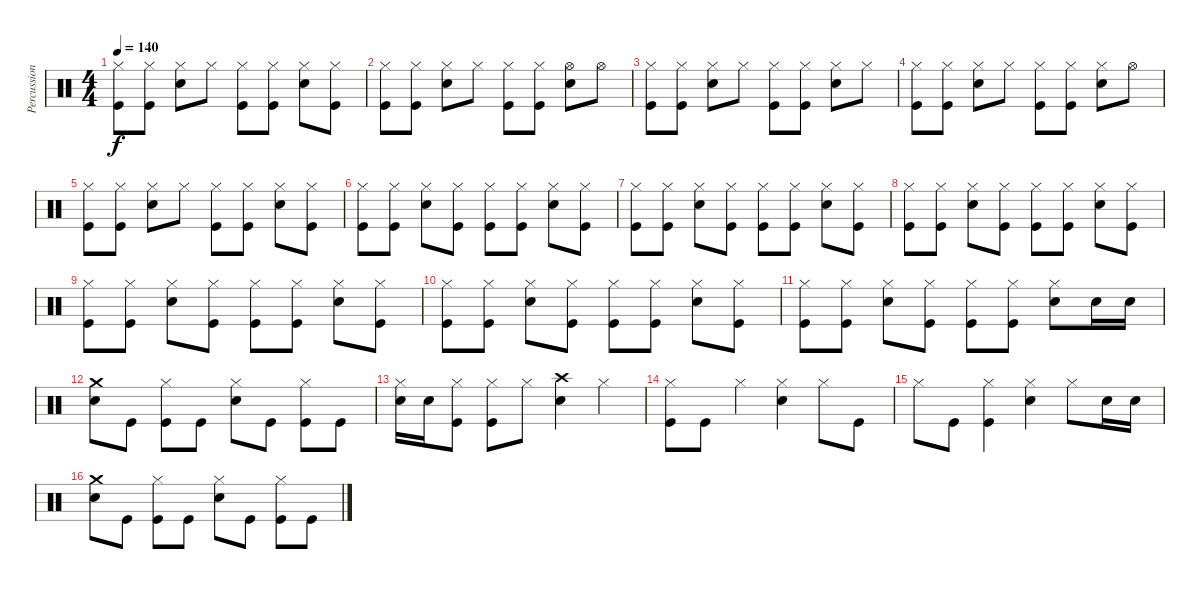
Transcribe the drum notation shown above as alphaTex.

\track ("Percussion" "Percussion") {instrument percussion}
\staff {score}
\articulation defaults
\ts (4 4)
\tempo 140
\clef neutral
\ks c
("Kick (hit)" "Hi-Hat (closed)").8{dy f} ("Kick (hit)" "Hi-Hat (closed)").8 ("Snare (hit) 2" "Hi-Hat (closed)").8 "Hi-Hat (closed)".8 ("Kick (hit)" "Hi-Hat (closed)").8 ("Kick (hit)" "Hi-Hat (closed)").8 ("Snare (hit) 2" "Hi-Hat (closed)").8 ("Kick (hit)" "Hi-Hat (closed)").8 |
("Kick (hit)" "Hi-Hat (closed)").8 ("Kick (hit)" "Hi-Hat (closed)").8 ("Snare (hit) 2" "Hi-Hat (closed)").8 "Hi-Hat (closed)".8 ("Kick (hit)" "Hi-Hat (closed)").8 ("Kick (hit)" "Hi-Hat (closed)").8 ("Snare (hit) 2" "Hi-Hat (open)").8 "Hi-Hat (open)".8 |
("Kick (hit)" "Hi-Hat (closed)").8 ("Kick (hit)" "Hi-Hat (closed)").8 ("Snare (hit) 2" "Hi-Hat (closed)").8 "Hi-Hat (closed)".8 ("Kick (hit)" "Hi-Hat (closed)").8 ("Kick (hit)" "Hi-Hat (closed)").8 ("Snare (hit) 2" "Hi-Hat (closed)").8 "Hi-Hat (closed)".8 |
("Kick (hit)" "Hi-Hat (closed)").8 ("Kick (hit)" "Hi-Hat (closed)").8 ("Snare (hit) 2" "Hi-Hat (closed)").8 "Hi-Hat (closed)".8 ("Kick (hit)" "Hi-Hat (closed)").8 ("Kick (hit)" "Hi-Hat (closed)").8 ("Snare (hit) 2" "Hi-Hat (closed)").8 "Hi-Hat (open)".8 |
("Kick (hit)" "Hi-Hat (closed)").8 ("Kick (hit)" "Hi-Hat (closed)").8 ("Snare (hit) 2" "Hi-Hat (closed)").8 "Hi-Hat (closed)".8 ("Kick (hit)" "Hi-Hat (closed)").8 ("Kick (hit)" "Hi-Hat (closed)").8 ("Snare (hit) 2" "Hi-Hat (closed)").8 ("Kick (hit)" "Hi-Hat (closed)").8 |
("Kick (hit)" "Hi-Hat (closed)").8 ("Kick (hit)" "Hi-Hat (closed)").8 ("Snare (hit) 2" "Hi-Hat (closed)").8 ("Kick (hit)" "Hi-Hat (closed)").8 ("Kick (hit)" "Hi-Hat (closed)").8 ("Kick (hit)" "Hi-Hat (closed)").8 ("Snare (hit) 2" "Hi-Hat (closed)").8 ("Kick (hit)" "Hi-Hat (closed)").8 |
("Kick (hit)" "Hi-Hat (closed)").8 ("Kick (hit)" "Hi-Hat (closed)").8 ("Snare (hit) 2" "Hi-Hat (closed)").8 ("Kick (hit)" "Hi-Hat (closed)").8 ("Kick (hit)" "Hi-Hat (closed)").8 ("Kick (hit)" "Hi-Hat (closed)").8 ("Snare (hit) 2" "Hi-Hat (closed)").8 ("Kick (hit)" "Hi-Hat (closed)").8 |
("Kick (hit)" "Hi-Hat (closed)").8 ("Kick (hit)" "Hi-Hat (closed)").8 ("Snare (hit) 2" "Hi-Hat (closed)").8 ("Kick (hit)" "Hi-Hat (closed)").8 ("Kick (hit)" "Hi-Hat (closed)").8 ("Kick (hit)" "Hi-Hat (closed)").8 ("Snare (hit) 2" "Hi-Hat (closed)").8 ("Kick (hit)" "Hi-Hat (closed)").8 |
("Kick (hit)" "Hi-Hat (closed)").8 ("Kick (hit)" "Hi-Hat (closed)").8 ("Snare (hit) 2" "Hi-Hat (closed)").8 ("Kick (hit)" "Hi-Hat (closed)").8 ("Kick (hit)" "Hi-Hat (closed)").8 ("Kick (hit)" "Hi-Hat (closed)").8 ("Snare (hit) 2" "Hi-Hat (closed)").8 ("Kick (hit)" "Hi-Hat (closed)").8 |
("Kick (hit)" "Hi-Hat (closed)").8 ("Kick (hit)" "Hi-Hat (closed)").8 ("Snare (hit) 2" "Hi-Hat (closed)").8 ("Kick (hit)" "Hi-Hat (closed)").8 ("Kick (hit)" "Hi-Hat (closed)").8 ("Kick (hit)" "Hi-Hat (closed)").8 ("Snare (hit) 2" "Hi-Hat (closed)").8 ("Kick (hit)" "Hi-Hat (closed)").8 |
("Kick (hit)" "Hi-Hat (closed)").8 ("Kick (hit)" "Hi-Hat (closed)").8 ("Snare (hit) 2" "Hi-Hat (closed)").8 ("Kick (hit)" "Hi-Hat (closed)").8 ("Kick (hit)" "Hi-Hat (closed)").8 ("Kick (hit)" "Hi-Hat (closed)").8 ("Snare (hit) 2" "Hi-Hat (closed)").8 "Snare (hit) 2".16 "Snare (hit) 2".16 |
("Snare (hit) 2" "Crash medium (hit)").8 "Kick (hit)".8 ("Kick (hit)" "Hi-Hat (closed)").8 "Kick (hit)".8 ("Snare (hit) 2" "Hi-Hat (closed)").8 "Kick (hit)".8 ("Kick (hit)" "Hi-Hat (closed)").8 "Kick (hit)".8 |
("Snare (hit) 2" "Hi-Hat (closed)").16 "Snare (hit) 2".16 ("Kick (hit)" "Hi-Hat (closed)").8 ("Kick (hit)" "Hi-Hat (closed)").8 "Hi-Hat (closed)".8 ("Snare (hit) 2" "Crash high (hit)").4 "Hi-Hat (closed)".4 |
("Kick (hit)" "Hi-Hat (closed)").8 "Kick (hit)".8 "Hi-Hat (closed)".4 ("Snare (hit) 2" "Hi-Hat (closed)").4 "Hi-Hat (closed)".8 "Kick (hit)".8 |
"Hi-Hat (closed)".8 "Kick (hit)".8 ("Kick (hit)" "Hi-Hat (closed)").4 ("Snare (hit) 2" "Hi-Hat (closed)").4 "Hi-Hat (closed)".8 "Snare (hit) 2".16 "Snare (hit) 2".16 |
("Snare (hit) 2" "Crash medium (hit)").8 "Kick (hit)".8 ("Kick (hit)" "Hi-Hat (closed)").8 "Kick (hit)".8 ("Snare (hit) 2" "Hi-Hat (closed)").8 "Kick (hit)".8 ("Kick (hit)" "Hi-Hat (closed)").8 "Kick (hit)".8
